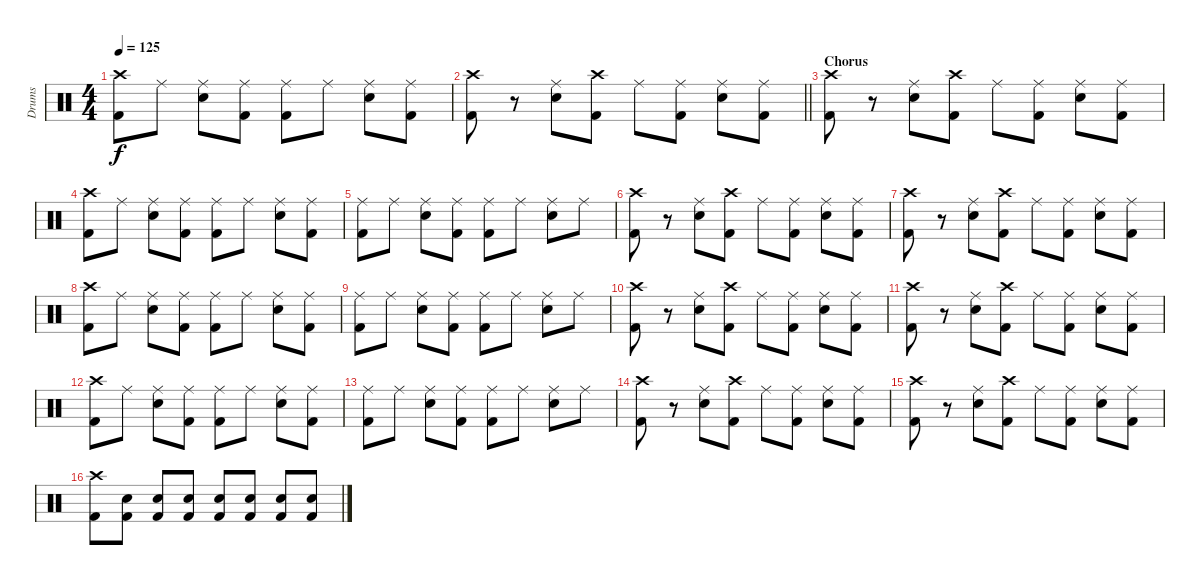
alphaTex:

\track ("Drums" "Drums") {instrument percussion}
\staff {score}
\articulation defaults
\ts (4 4)
\tempo 125
\clef neutral
\ks c
("Crash high (hit)" "Kick (hit) 2").8{dy f} "Ride (middle)".8 ("Ride (middle)" "Snare (hit) 2").8 ("Ride (middle)" "Kick (hit) 2").8 ("Ride (middle)" "Kick (hit) 2").8 "Ride (middle)".8 ("Ride (middle)" "Snare (hit) 2").8 ("Ride (middle)" "Kick (hit) 2").8 |
\barLineRight lightlight
("Crash high (hit)" "Kick (hit) 2").8 r.8 ("Ride (middle)" "Snare (hit) 2").8 ("Crash high (hit)" "Kick (hit) 2").8 "Ride (middle)".8 ("Ride (middle)" "Kick (hit) 2").8 ("Ride (middle)" "Snare (hit) 2").8 ("Ride (middle)" "Kick (hit) 2").8 |
\section ("" "Chorus")
("Crash high (hit)" "Kick (hit) 2").8 r.8 ("Ride (middle)" "Snare (hit) 2").8 ("Crash high (hit)" "Kick (hit) 2").8 "Ride (middle)".8 ("Ride (middle)" "Kick (hit) 2").8 ("Ride (middle)" "Snare (hit) 2").8 ("Ride (middle)" "Kick (hit) 2").8 |
("Crash high (hit)" "Kick (hit) 2").8 "Ride (middle)".8 ("Ride (middle)" "Snare (hit) 2").8 ("Ride (middle)" "Kick (hit) 2").8 ("Ride (middle)" "Kick (hit) 2").8 "Ride (middle)".8 ("Ride (middle)" "Snare (hit) 2").8 ("Ride (middle)" "Kick (hit) 2").8 |
("Ride (middle)" "Kick (hit) 2").8 "Ride (middle)".8 ("Ride (middle)" "Snare (hit) 2").8 ("Ride (middle)" "Kick (hit) 2").8 ("Ride (middle)" "Kick (hit) 2").8 "Ride (middle)".8 ("Ride (middle)" "Snare (hit) 2").8 "Ride (middle)".8 |
("Crash high (hit)" "Kick (hit) 2").8 r.8 ("Ride (middle)" "Snare (hit) 2").8 ("Crash high (hit)" "Kick (hit) 2").8 "Ride (middle)".8 ("Ride (middle)" "Kick (hit) 2").8 ("Ride (middle)" "Snare (hit) 2").8 ("Ride (middle)" "Kick (hit) 2").8 |
("Crash high (hit)" "Kick (hit) 2").8 r.8 ("Ride (middle)" "Snare (hit) 2").8 ("Crash high (hit)" "Kick (hit) 2").8 "Ride (middle)".8 ("Ride (middle)" "Kick (hit) 2").8 ("Ride (middle)" "Snare (hit) 2").8 ("Ride (middle)" "Kick (hit) 2").8 |
("Crash high (hit)" "Kick (hit) 2").8 "Ride (middle)".8 ("Ride (middle)" "Snare (hit) 2").8 ("Ride (middle)" "Kick (hit) 2").8 ("Ride (middle)" "Kick (hit) 2").8 "Ride (middle)".8 ("Ride (middle)" "Snare (hit) 2").8 ("Ride (middle)" "Kick (hit) 2").8 |
("Ride (middle)" "Kick (hit) 2").8 "Ride (middle)".8 ("Ride (middle)" "Snare (hit) 2").8 ("Ride (middle)" "Kick (hit) 2").8 ("Ride (middle)" "Kick (hit) 2").8 "Ride (middle)".8 ("Ride (middle)" "Snare (hit) 2").8 "Ride (middle)".8 |
("Crash high (hit)" "Kick (hit) 2").8 r.8 ("Ride (middle)" "Snare (hit) 2").8 ("Crash high (hit)" "Kick (hit) 2").8 "Ride (middle)".8 ("Ride (middle)" "Kick (hit) 2").8 ("Ride (middle)" "Snare (hit) 2").8 ("Ride (middle)" "Kick (hit) 2").8 |
("Crash high (hit)" "Kick (hit) 2").8 r.8 ("Ride (middle)" "Snare (hit) 2").8 ("Crash high (hit)" "Kick (hit) 2").8 "Ride (middle)".8 ("Ride (middle)" "Kick (hit) 2").8 ("Ride (middle)" "Snare (hit) 2").8 ("Ride (middle)" "Kick (hit) 2").8 |
("Crash high (hit)" "Kick (hit) 2").8 "Ride (middle)".8 ("Ride (middle)" "Snare (hit) 2").8 ("Ride (middle)" "Kick (hit) 2").8 ("Ride (middle)" "Kick (hit) 2").8 "Ride (middle)".8 ("Ride (middle)" "Snare (hit) 2").8 ("Ride (middle)" "Kick (hit) 2").8 |
("Ride (middle)" "Kick (hit) 2").8 "Ride (middle)".8 ("Ride (middle)" "Snare (hit) 2").8 ("Ride (middle)" "Kick (hit) 2").8 ("Ride (middle)" "Kick (hit) 2").8 "Ride (middle)".8 ("Ride (middle)" "Snare (hit) 2").8 "Ride (middle)".8 |
("Crash high (hit)" "Kick (hit) 2").8 r.8 ("Ride (middle)" "Snare (hit) 2").8 ("Crash high (hit)" "Kick (hit) 2").8 "Ride (middle)".8 ("Ride (middle)" "Kick (hit) 2").8 ("Ride (middle)" "Snare (hit) 2").8 ("Ride (middle)" "Kick (hit) 2").8 |
("Crash high (hit)" "Kick (hit) 2").8 r.8 ("Ride (middle)" "Snare (hit) 2").8 ("Crash high (hit)" "Kick (hit) 2").8 "Ride (middle)".8 ("Ride (middle)" "Kick (hit) 2").8 ("Ride (middle)" "Snare (hit) 2").8 ("Ride (middle)" "Kick (hit) 2").8 |
("Crash high (hit)" "Kick (hit) 2").8 ("Snare (hit) 2" "Kick (hit) 2").8 ("Snare (hit) 2" "Kick (hit) 2").8 ("Snare (hit) 2" "Kick (hit) 2").8 ("Snare (hit) 2" "Kick (hit) 2").8 ("Snare (hit) 2" "Kick (hit) 2").8 ("Snare (hit) 2" "Kick (hit) 2").8 ("Snare (hit) 2" "Kick (hit) 2").8
